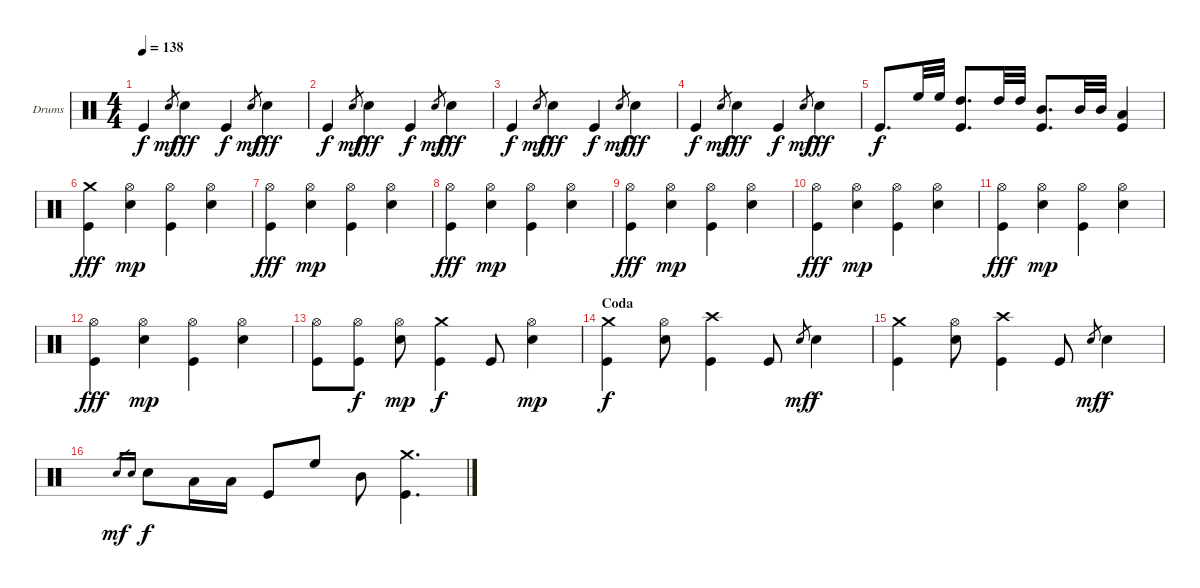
\bracketExtendMode groupsimilarinstruments
\firstSystemTrackNameOrientation horizontal
\otherSystemsTrackNameOrientation horizontal
\track ("Drumkit" "Drums") {instrument percussion}
\staff {score}
\articulation defaults
\ts (4 4)
\tempo 138
\clef neutral
\ks c "Kick (hit)".4{dy f} "Snare (hit) 2".8{gr dy mf} "Snare (hit) 2".4{dy fff} "Kick (hit)".4{dy f} "Snare (hit) 2".8{gr dy mf} "Snare (hit) 2".4{dy fff}
|
"Kick (hit)".4{dy f} "Snare (hit) 2".8{gr dy mf} "Snare (hit) 2".4{dy fff} "Kick (hit)".4{dy f} "Snare (hit) 2".8{gr dy mf} "Snare (hit) 2".4{dy fff} |
"Kick (hit)".4{dy f} "Snare (hit) 2".8{gr dy mf} "Snare (hit) 2".4{dy fff} "Kick (hit)".4{dy f} "Snare (hit) 2".8{gr dy mf} "Snare (hit) 2".4{dy fff} |
"Kick (hit)".4{dy f} "Snare (hit) 2".8{gr dy mf} "Snare (hit) 2".4{dy fff} "Kick (hit)".4{dy f} "Snare (hit) 2".8{gr dy mf} "Snare (hit) 2".4{dy fff} |
"Kick (hit)".8{d dy f} "High Floor Tom (hit)".32 "High Floor Tom (hit)".32 ("High Tom (hit)" "Kick (hit)").8{d} "High Tom (hit)".32 "High Tom (hit)".32 ("Mid Tom (hit)" "Kick (hit)").8{d} "Mid Tom (hit)".32 "Mid Tom (hit)".32 ("Low Tom (hit)" "Kick (hit)").4 |
("Crash medium (hit)" "Kick (hit)").4{dy fff} ("Hi-Hat (open)" "Snare (hit) 2").4{dy mp} ("Hi-Hat (open)" "Kick (hit)").4 ("Hi-Hat (open)" "Snare (hit) 2").4 |
("Hi-Hat (open)" "Kick (hit)").4{dy fff} ("Hi-Hat (open)" "Snare (hit) 2").4{dy mp} ("Hi-Hat (open)" "Kick (hit)").4 ("Hi-Hat (open)" "Snare (hit) 2").4 |
("Hi-Hat (open)" "Kick (hit)").4{dy fff} ("Hi-Hat (open)" "Snare (hit) 2").4{dy mp} ("Hi-Hat (open)" "Kick (hit)").4 ("Hi-Hat (open)" "Snare (hit) 2").4 |
("Hi-Hat (open)" "Kick (hit)").4{dy fff} ("Hi-Hat (open)" "Snare (hit) 2").4{dy mp} ("Hi-Hat (open)" "Kick (hit)").4 ("Hi-Hat (open)" "Snare (hit) 2").4 |
("Hi-Hat (open)" "Kick (hit)").4{dy fff} ("Hi-Hat (open)" "Snare (hit) 2").4{dy mp} ("Hi-Hat (open)" "Kick (hit)").4 ("Hi-Hat (open)" "Snare (hit) 2").4 |
("Hi-Hat (open)" "Kick (hit)").4{dy fff} ("Hi-Hat (open)" "Snare (hit) 2").4{dy mp} ("Hi-Hat (open)" "Kick (hit)").4 ("Hi-Hat (open)" "Snare (hit) 2").4 |
("Hi-Hat (open)" "Kick (hit)").4{dy fff} ("Hi-Hat (open)" "Snare (hit) 2").4{dy mp} ("Hi-Hat (open)" "Kick (hit)").4 ("Hi-Hat (open)" "Snare (hit) 2").4 |
("Hi-Hat (open)" "Kick (hit)").8 ("Hi-Hat (open)" "Kick (hit)").8{dy f} ("Hi-Hat (open)" "Snare (hit) 2").8{dy mp} ("Crash medium (hit)" "Kick (hit)").4{dy f} "Kick (hit)".8 ("Hi-Hat (open)" "Snare (hit) 2").4{dy mp} |
\section ("" "Coda")
("Crash medium (hit)" "Kick (hit)").4{dy f} ("Hi-Hat (open)" "Snare (hit) 2").8 ("Crash high (hit)" "Kick (hit)").4 "Kick (hit)".8 "Snare (hit) 2".8{gr dy mf} "Snare (hit) 2".4{dy f} |
("Crash medium (hit)" "Kick (hit)").4 ("Hi-Hat (open)" "Snare (hit) 2").8 ("Crash high (hit)" "Kick (hit)").4 "Kick (hit)".8 "Snare (hit) 2".8{gr dy mf} "Snare (hit) 2".4{dy f} |
"Snare (hit) 2".16{gr dy mf} "Snare (hit) 2".16{gr} "Snare (hit) 2".8{dy f} "Low Tom (hit)".16 "Low Tom (hit)".16 "Kick (hit)".8 "High Floor Tom (hit)".8 "Mid Tom (hit)".8 ("Crash medium (hit)" "Kick (hit)").4{d}
